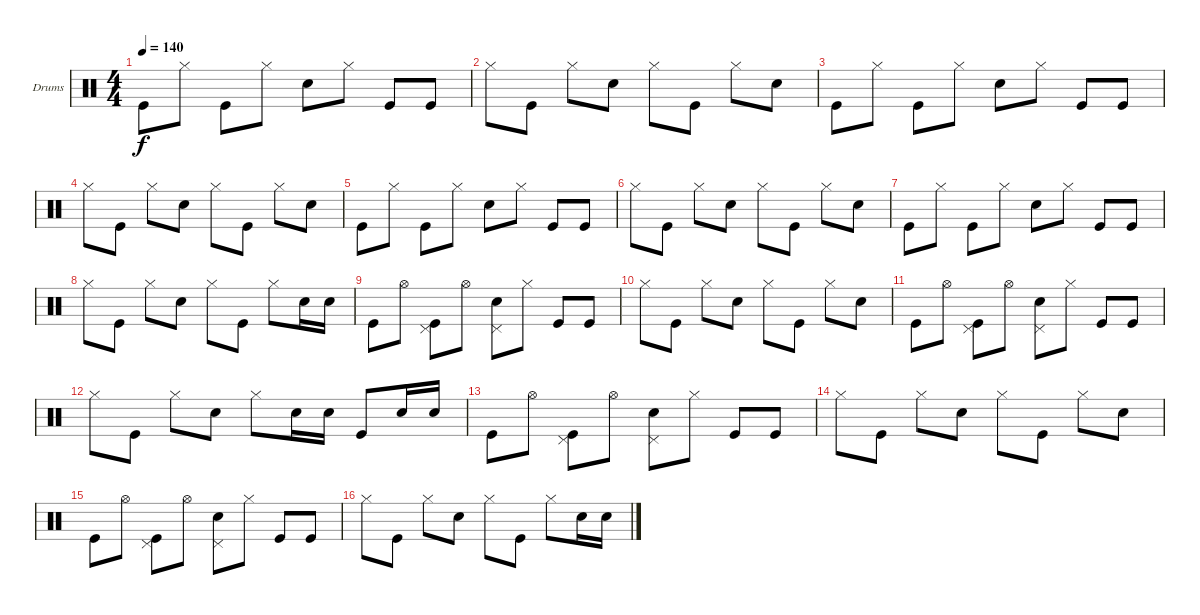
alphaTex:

\defaultSystemsLayout 4
\bracketExtendMode groupsimilarinstruments
\firstSystemTrackNameOrientation horizontal
\otherSystemsTrackNameOrientation horizontal
\track ("Drumkit" "Drums") {instrument percussion}
\staff {score}
\articulation defaults
\ts (4 4)
\tempo 140
\clef neutral
\scale
0.333333
\ks c "Kick (hit)".8{dy f} "Hi-Hat (closed)".8 "Kick (hit)".8 "Hi-Hat (closed)".8 "Snare (hit) 2".8 "Hi-Hat (closed)".8 "Kick (hit)".8 "Kick (hit)".8
|
\scale
0.333333 "Hi-Hat (closed)".8 "Kick (hit)".8 "Hi-Hat (closed)".8 "Snare (hit) 2".8 "Hi-Hat (closed)".8 "Kick (hit)".8 "Hi-Hat (closed)".8 "Snare (hit) 2".8 |
\scale
0.333333 "Kick (hit)".8 "Hi-Hat (closed)".8 "Kick (hit)".8 "Hi-Hat (closed)".8 "Snare (hit) 2".8 "Hi-Hat (closed)".8 "Kick (hit)".8 "Kick (hit)".8 |
\scale
0.333333 "Hi-Hat (closed)".8 "Kick (hit)".8 "Hi-Hat (closed)".8 "Snare (hit) 2".8 "Hi-Hat (closed)".8 "Kick (hit)".8 "Hi-Hat (closed)".8 "Snare (hit) 2".8 |
\scale
0.333333 "Kick (hit)".8 "Hi-Hat (closed)".8 "Kick (hit)".8 "Hi-Hat (closed)".8 "Snare (hit) 2".8 "Hi-Hat (closed)".8 "Kick (hit)".8 "Kick (hit)".8 |
\scale
0.333333 "Hi-Hat (closed)".8 "Kick (hit)".8 "Hi-Hat (closed)".8 "Snare (hit) 2".8 "Hi-Hat (closed)".8 "Kick (hit)".8 "Hi-Hat (closed)".8 "Snare (hit) 2".8 |
\scale
0.333333 "Kick (hit)".8 "Hi-Hat (closed)".8 "Kick (hit)".8 "Hi-Hat (closed)".8 "Snare (hit) 2".8 "Hi-Hat (closed)".8 "Kick (hit)".8 "Kick (hit)".8 |
\scale
0.333333 "Hi-Hat (closed)".8 "Kick (hit)".8 "Hi-Hat (closed)".8 "Snare (hit) 2".8 "Hi-Hat (closed)".8 "Kick (hit)".8 "Hi-Hat (closed)".8 "Snare (hit) 2".16 "Snare (hit) 2".16 |
\scale
0.333333 "Kick (hit)".8 "Hi-Hat (open)".8 ("Pedal Hi-Hat (hit)" "Kick (hit)").8 "Hi-Hat (open)".8 ("Pedal Hi-Hat (hit)" "Snare (hit) 2").8 "Hi-Hat (closed)".8 "Kick (hit)".8 "Kick (hit)".8 |
\scale
0.333333 "Hi-Hat (closed)".8 "Kick (hit)".8 "Hi-Hat (closed)".8 "Snare (hit) 2".8 "Hi-Hat (closed)".8 "Kick (hit)".8 "Hi-Hat (closed)".8 "Snare (hit) 2".8 |
\scale
0.333333 "Kick (hit)".8 "Hi-Hat (open)".8 ("Pedal Hi-Hat (hit)" "Kick (hit)").8 "Hi-Hat (open)".8 ("Pedal Hi-Hat (hit)" "Snare (hit) 2").8 "Hi-Hat (closed)".8 "Kick (hit)".8 "Kick (hit)".8 |
\scale
0.333333 "Hi-Hat (closed)".8 "Kick (hit)".8 "Hi-Hat (closed)".8 "Snare (hit) 2".8 "Hi-Hat (closed)".8 "Snare (hit) 2".16 "Snare (hit) 2".16 "Kick (hit)".8 "Snare (hit) 2".16 "Snare (hit) 2".16 |
\scale
0.333333 "Kick (hit)".8 "Hi-Hat (open)".8 ("Pedal Hi-Hat (hit)" "Kick (hit)").8 "Hi-Hat (open)".8 ("Pedal Hi-Hat (hit)" "Snare (hit) 2").8 "Hi-Hat (closed)".8 "Kick (hit)".8 "Kick (hit)".8 |
\scale
0.333333 "Hi-Hat (closed)".8 "Kick (hit)".8 "Hi-Hat (closed)".8 "Snare (hit) 2".8 "Hi-Hat (closed)".8 "Kick (hit)".8 "Hi-Hat (closed)".8 "Snare (hit) 2".8 |
\scale
0.333333 "Kick (hit)".8 "Hi-Hat (open)".8 ("Pedal Hi-Hat (hit)" "Kick (hit)").8 "Hi-Hat (open)".8 ("Pedal Hi-Hat (hit)" "Snare (hit) 2").8 "Hi-Hat (closed)".8 "Kick (hit)".8 "Kick (hit)".8 |
\scale
0.333333 "Hi-Hat (closed)".8 "Kick (hit)".8 "Hi-Hat (closed)".8 "Snare (hit) 2".8 "Hi-Hat (closed)".8 "Kick (hit)".8 "Hi-Hat (closed)".8 "Snare (hit) 2".16 "Snare (hit) 2".16
